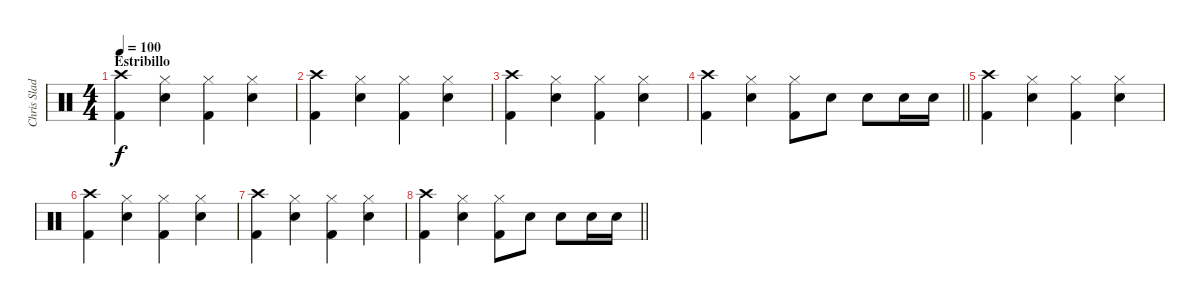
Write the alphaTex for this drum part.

\track ("Chris Slade" "Chris Slad") {instrument percussion}
\staff {score}
\articulation defaults
\ts (4 4)
\section ("" "Estribillo")
\tempo 100
\clef neutral
\ks c
("Kick (hit) 2" "Crash high (hit)").4{dy f} ("Snare (hit) 2" "Hi-Hat (closed)").4 ("Kick (hit) 2" "Hi-Hat (closed)").4 ("Snare (hit) 2" "Hi-Hat (closed)").4 |
("Kick (hit) 2" "Crash high (hit)").4 ("Snare (hit) 2" "Hi-Hat (closed)").4 ("Kick (hit) 2" "Hi-Hat (closed)").4 ("Snare (hit) 2" "Hi-Hat (closed)").4 |
("Kick (hit) 2" "Crash high (hit)").4 ("Snare (hit) 2" "Hi-Hat (closed)").4 ("Kick (hit) 2" "Hi-Hat (closed)").4 ("Snare (hit) 2" "Hi-Hat (closed)").4 |
\barLineRight lightlight
("Kick (hit) 2" "Crash high (hit)").4 ("Snare (hit) 2" "Hi-Hat (closed)").4 ("Kick (hit) 2" "Hi-Hat (closed)").8 "Snare (hit) 2".8 "Snare (hit) 2".8 "Snare (hit) 2".16 "Snare (hit) 2".16 |
("Kick (hit) 2" "Crash high (hit)").4 ("Snare (hit) 2" "Hi-Hat (closed)").4 ("Kick (hit) 2" "Hi-Hat (closed)").4 ("Snare (hit) 2" "Hi-Hat (closed)").4 |
("Kick (hit) 2" "Crash high (hit)").4 ("Snare (hit) 2" "Hi-Hat (closed)").4 ("Kick (hit) 2" "Hi-Hat (closed)").4 ("Snare (hit) 2" "Hi-Hat (closed)").4 |
("Kick (hit) 2" "Crash high (hit)").4 ("Snare (hit) 2" "Hi-Hat (closed)").4 ("Kick (hit) 2" "Hi-Hat (closed)").4 ("Snare (hit) 2" "Hi-Hat (closed)").4 |
\barLineRight lightlight
("Kick (hit) 2" "Crash high (hit)").4 ("Snare (hit) 2" "Hi-Hat (closed)").4 ("Kick (hit) 2" "Hi-Hat (closed)").8 "Snare (hit) 2".8 "Snare (hit) 2".8 "Snare (hit) 2".16 "Snare (hit) 2".16
